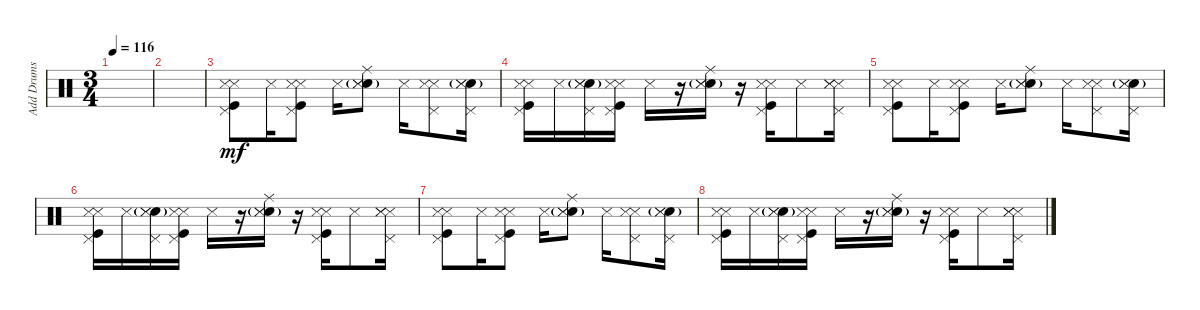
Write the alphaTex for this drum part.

\track ("Add Drums" "Add Drums") {instrument percussion}
\staff {score}
\articulation defaults
\ts (3 4)
\tempo 116
\clef neutral
\ks c
|
|
("Metronome (hit)" "Kick (hit)" "Pedal Hi-Hat (hit)" "Snare (side stick) 3").8{dy mf} "Snare (side stick) 3".16 ("Metronome (hit)" "Kick (hit)" "Pedal Hi-Hat (hit)" "Snare (side stick) 3").8 "Snare (side stick) 3".16 ("Electric Snare (hit)"{g} "Metronome (hit)" "Ride (middle)" "Snare (side stick) 3").8 "Snare (side stick) 3".16 ("Metronome (hit)" "Pedal Hi-Hat (hit)" "Snare (side stick) 3").8 ("Electric Snare (hit)"{g} "Metronome (hit)" "Pedal Hi-Hat (hit)" "Snare (side stick) 3").16 |
("Metronome (hit)" "Kick (hit)" "Pedal Hi-Hat (hit)" "Snare (side stick) 3").16 "Snare (side stick) 3".16 ("Electric Snare (hit)"{g} "Metronome (hit)" "Pedal Hi-Hat (hit)" "Snare (side stick) 3").16 ("Kick (hit)" "Metronome (hit)" "Pedal Hi-Hat (hit)" "Snare (side stick) 3").16 "Snare (side stick) 3".16 r.16 ("Electric Snare (hit)"{g} "Metronome (hit)" "Ride (middle)" "Snare (side stick) 3").16 r.16 ("Kick (hit)" "Metronome (hit)" "Pedal Hi-Hat (hit)" "Snare (side stick) 3").16 "Snare (side stick) 3".8 ("Metronome (hit)" "Metronome (hit)" "Pedal Hi-Hat (hit)" "Snare (side stick) 3").16 |
("Metronome (hit)" "Kick (hit)" "Pedal Hi-Hat (hit)" "Snare (side stick) 3").8 "Snare (side stick) 3".16 ("Metronome (hit)" "Kick (hit)" "Pedal Hi-Hat (hit)" "Snare (side stick) 3").8 "Snare (side stick) 3".16 ("Electric Snare (hit)"{g} "Metronome (hit)" "Ride (middle)" "Snare (side stick) 3").8 "Snare (side stick) 3".16 ("Metronome (hit)" "Pedal Hi-Hat (hit)" "Snare (side stick) 3").8 ("Electric Snare (hit)"{g} "Metronome (hit)" "Pedal Hi-Hat (hit)" "Snare (side stick) 3").16 |
("Metronome (hit)" "Kick (hit)" "Pedal Hi-Hat (hit)" "Snare (side stick) 3").16 "Snare (side stick) 3".16 ("Electric Snare (hit)"{g} "Metronome (hit)" "Pedal Hi-Hat (hit)" "Snare (side stick) 3").16 ("Kick (hit)" "Metronome (hit)" "Pedal Hi-Hat (hit)" "Snare (side stick) 3").16 "Snare (side stick) 3".16 r.16 ("Electric Snare (hit)"{g} "Metronome (hit)" "Ride (middle)" "Snare (side stick) 3").16 r.16 ("Kick (hit)" "Metronome (hit)" "Pedal Hi-Hat (hit)" "Snare (side stick) 3").16 "Snare (side stick) 3".8 ("Metronome (hit)" "Metronome (hit)" "Pedal Hi-Hat (hit)" "Snare (side stick) 3").16 |
("Metronome (hit)" "Kick (hit)" "Pedal Hi-Hat (hit)" "Snare (side stick) 3").8 "Snare (side stick) 3".16 ("Metronome (hit)" "Kick (hit)" "Pedal Hi-Hat (hit)" "Snare (side stick) 3").8 "Snare (side stick) 3".16 ("Electric Snare (hit)"{g} "Metronome (hit)" "Ride (middle)" "Snare (side stick) 3").8 "Snare (side stick) 3".16 ("Metronome (hit)" "Pedal Hi-Hat (hit)" "Snare (side stick) 3").8 ("Electric Snare (hit)"{g} "Metronome (hit)" "Pedal Hi-Hat (hit)" "Snare (side stick) 3").16 |
("Metronome (hit)" "Kick (hit)" "Pedal Hi-Hat (hit)" "Snare (side stick) 3").16 "Snare (side stick) 3".16 ("Electric Snare (hit)"{g} "Metronome (hit)" "Pedal Hi-Hat (hit)" "Snare (side stick) 3").16 ("Kick (hit)" "Metronome (hit)" "Pedal Hi-Hat (hit)" "Snare (side stick) 3").16 "Snare (side stick) 3".16 r.16 ("Electric Snare (hit)"{g} "Metronome (hit)" "Ride (middle)" "Snare (side stick) 3").16 r.16 ("Kick (hit)" "Metronome (hit)" "Pedal Hi-Hat (hit)" "Snare (side stick) 3").16 "Snare (side stick) 3".8 ("Metronome (hit)" "Metronome (hit)" "Pedal Hi-Hat (hit)" "Snare (side stick) 3").16
